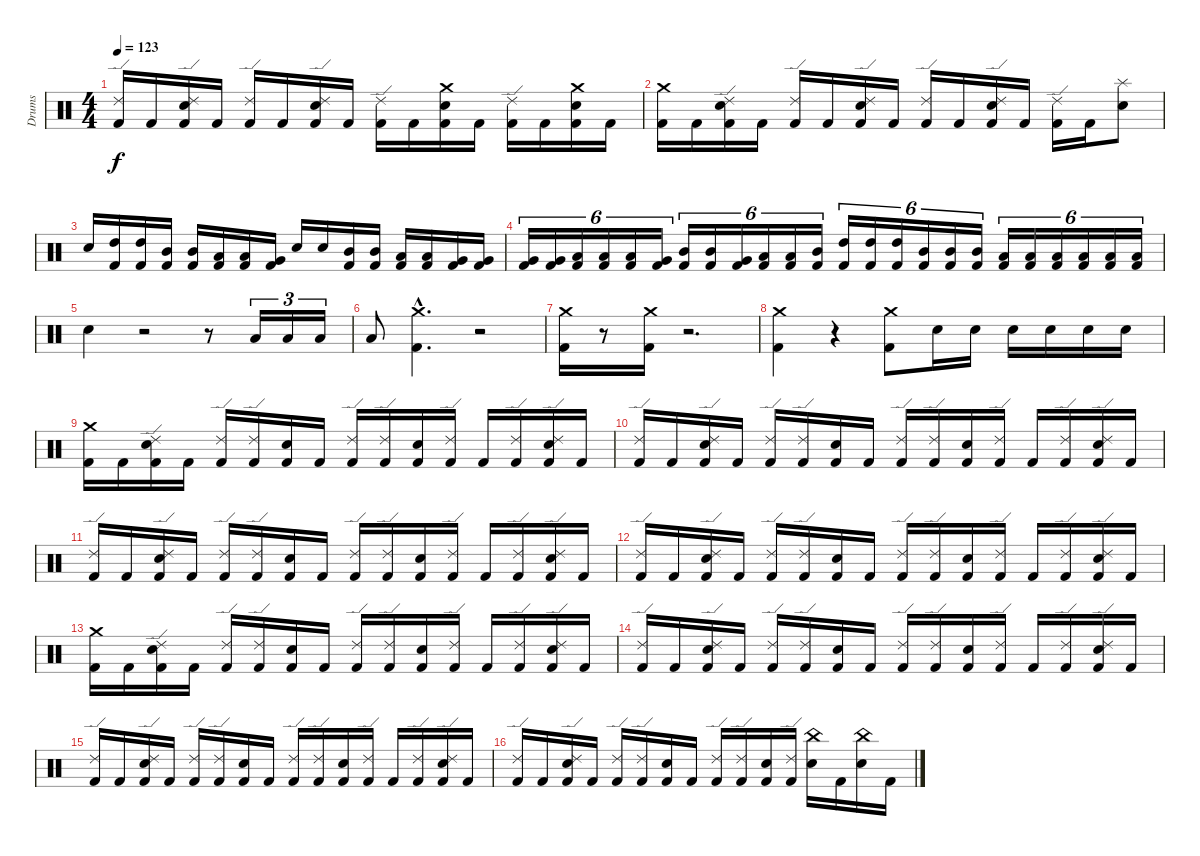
\track ("Drums" "Drums") {instrument percussion}
\staff {score}
\articulation defaults
\ts (4 4)
\tempo 123
\clef neutral
\ks c
("Ride (edge) 2" "Kick (hit) 2").16{dy f} "Kick (hit) 2".16 ("Ride (edge) 2" "Electric Snare (hit)" "Kick (hit) 2").16 "Kick (hit) 2".16 ("Ride (edge) 2" "Kick (hit) 2").16 "Kick (hit) 2".16 ("Ride (edge) 2" "Electric Snare (hit)" "Kick (hit) 2").16 "Kick (hit) 2".16 ("Ride (edge) 2" "Kick (hit) 2").16 "Kick (hit) 2".16 ("Crash medium (hit)" "Electric Snare (hit)" "Kick (hit) 2").16 "Kick (hit) 2".16 ("Ride (edge) 2" "Kick (hit) 2").16 "Kick (hit) 2".16 ("Crash medium (hit)" "Electric Snare (hit)" "Kick (hit) 2").16 "Kick (hit) 2".16 |
("Crash medium (hit)" "Kick (hit) 2").16 "Kick (hit) 2".16 ("Ride (edge) 2" "Electric Snare (hit)" "Kick (hit) 2").16 "Kick (hit) 2".16 ("Ride (edge) 2" "Kick (hit) 2").16 "Kick (hit) 2".16 ("Ride (edge) 2" "Electric Snare (hit)" "Kick (hit) 2").16 "Kick (hit) 2".16 ("Ride (edge) 2" "Kick (hit) 2").16 "Kick (hit) 2".16 ("Ride (edge) 2" "Electric Snare (hit)" "Kick (hit) 2").16 "Kick (hit) 2".16 ("Ride (edge) 2" "Kick (hit) 2").16 "Kick (hit) 2".16 ("Splash (hit)" "Electric Snare (hit)").8 |
"Electric Snare (hit)".16 ("Kick (hit) 2" "High Tom (hit)").16 ("Kick (hit) 2" "High Tom (hit)").16 ("Kick (hit) 2" "Mid Tom (hit)").16 ("Kick (hit) 2" "Mid Tom (hit)").16 ("Kick (hit) 2" "Low Tom (hit)").16 ("Kick (hit) 2" "Low Tom (hit)").16 ("Kick (hit) 2" "Very Low Tom (hit)").16 "Electric Snare (hit)".16 "Electric Snare (hit)".16 ("Kick (hit) 2" "Mid Tom (hit)").16 ("Kick (hit) 2" "Mid Tom (hit)").16 ("Kick (hit) 2" "Low Tom (hit)").16 ("Kick (hit) 2" "Low Tom (hit)").16 ("Kick (hit) 2" "Very Low Tom (hit)").16 ("Kick (hit) 2" "Very Low Tom (hit)").16 |
("Kick (hit) 2" "Very Low Tom (hit)").16{tu (6 4)} ("Kick (hit) 2" "Very Low Tom (hit)").16{tu (6 4)} ("Kick (hit) 2" "Low Floor Tom (hit)").16{tu (6 4)} ("Kick (hit) 2" "Low Tom (hit)").16{tu (6 4)} ("Kick (hit) 2" "Low Tom (hit)").16{tu (6 4)} ("Kick (hit) 2" "Very Low Tom (hit)").16{tu (6 4)} ("Kick (hit) 2" "Mid Tom (hit)").16{tu (6 4)} ("Kick (hit) 2" "Mid Tom (hit)").16{tu (6 4)} ("Kick (hit) 2" "Very Low Tom (hit)").16{tu (6 4)} ("Kick (hit) 2" "Low Tom (hit)").16{tu (6 4)} ("Kick (hit) 2" "Low Tom (hit)").16{tu (6 4)} ("Kick (hit) 2" "Mid Tom (hit)").16{tu (6 4)} ("Kick (hit) 2" "High Tom (hit)").16{tu (6 4)} ("Kick (hit) 2" "High Tom (hit)").16{tu (6 4)} ("Kick (hit) 2" "High Tom (hit)").16{tu (6 4)} ("Kick (hit) 2" "Mid Tom (hit)").16{tu (6 4)} ("Kick (hit) 2" "Mid Tom (hit)").16{tu (6 4)} ("Kick (hit) 2" "Mid Tom (hit)").16{tu (6 4)} ("Kick (hit) 2" "Low Tom (hit)").16{tu (6 4)} ("Kick (hit) 2" "Low Tom (hit)").16{tu (6 4)} ("Kick (hit) 2" "Low Tom (hit)").16{tu (6 4)} ("Kick (hit) 2" "Low Floor Tom (hit)").16{tu (6 4)} ("Kick (hit) 2" "Low Floor Tom (hit)").16{tu (6 4)} ("Kick (hit) 2" "Low Floor Tom (hit)").16{tu (6 4)} |
"Electric Snare (hit)".4 r.2 r.8 "Low Tom (hit)".16{tu (3 2)} "Low Tom (hit)".16{tu (3 2)} "Low Tom (hit)".16{tu (3 2)} |
"Low Floor Tom (hit)".8 ("Crash medium (hit)"{hac} "Kick (hit) 2"{hac}).4{d} r.2 |
("Crash medium (hit)" "Kick (hit) 2").16 r.8 ("Crash medium (hit)" "Kick (hit) 2").16 r.2{d} |
("Crash medium (hit)" "Kick (hit) 2").4 r.4 ("Crash medium (hit)" "Kick (hit) 2").8 "Electric Snare (hit)".16 "Electric Snare (hit)".16 "Electric Snare (hit)".16 "Electric Snare (hit)".16 "Electric Snare (hit)".16 "Electric Snare (hit)".16 |
("Crash medium (hit)" "Kick (hit) 2").16 "Kick (hit) 2".16 ("Electric Snare (hit)" "Ride (edge) 2" "Kick (hit) 2").16 "Kick (hit) 2".16 ("Ride (edge) 2" "Kick (hit) 2").16 ("Ride (edge) 2" "Kick (hit) 2").16 ("Electric Snare (hit)" "Kick (hit) 2").16 "Kick (hit) 2".16 ("Ride (edge) 2" "Kick (hit) 2").16 ("Ride (edge) 2" "Kick (hit) 2").16 ("Electric Snare (hit)" "Kick (hit) 2").16 ("Ride (edge) 2" "Kick (hit) 2").16 "Kick (hit) 2".16 ("Ride (edge) 2" "Kick (hit) 2").16 ("Electric Snare (hit)" "Ride (edge) 2" "Kick (hit) 2").16 "Kick (hit) 2".16 |
("Ride (edge) 2" "Kick (hit) 2").16 "Kick (hit) 2".16 ("Electric Snare (hit)" "Ride (edge) 2" "Kick (hit) 2").16 "Kick (hit) 2".16 ("Ride (edge) 2" "Kick (hit) 2").16 ("Ride (edge) 2" "Kick (hit) 2").16 ("Electric Snare (hit)" "Kick (hit) 2").16 "Kick (hit) 2".16 ("Ride (edge) 2" "Kick (hit) 2").16 ("Ride (edge) 2" "Kick (hit) 2").16 ("Electric Snare (hit)" "Kick (hit) 2").16 ("Ride (edge) 2" "Kick (hit) 2").16 "Kick (hit) 2".16 ("Ride (edge) 2" "Kick (hit) 2").16 ("Electric Snare (hit)" "Ride (edge) 2" "Kick (hit) 2").16 "Kick (hit) 2".16 |
("Ride (edge) 2" "Kick (hit) 2").16 "Kick (hit) 2".16 ("Electric Snare (hit)" "Ride (edge) 2" "Kick (hit) 2").16 "Kick (hit) 2".16 ("Ride (edge) 2" "Kick (hit) 2").16 ("Ride (edge) 2" "Kick (hit) 2").16 ("Electric Snare (hit)" "Kick (hit) 2").16 "Kick (hit) 2".16 ("Ride (edge) 2" "Kick (hit) 2").16 ("Ride (edge) 2" "Kick (hit) 2").16 ("Electric Snare (hit)" "Kick (hit) 2").16 ("Ride (edge) 2" "Kick (hit) 2").16 "Kick (hit) 2".16 ("Ride (edge) 2" "Kick (hit) 2").16 ("Electric Snare (hit)" "Ride (edge) 2" "Kick (hit) 2").16 "Kick (hit) 2".16 |
("Ride (edge) 2" "Kick (hit) 2").16 "Kick (hit) 2".16 ("Electric Snare (hit)" "Ride (edge) 2" "Kick (hit) 2").16 "Kick (hit) 2".16 ("Ride (edge) 2" "Kick (hit) 2").16 ("Ride (edge) 2" "Kick (hit) 2").16 ("Electric Snare (hit)" "Kick (hit) 2").16 "Kick (hit) 2".16 ("Ride (edge) 2" "Kick (hit) 2").16 ("Ride (edge) 2" "Kick (hit) 2").16 ("Electric Snare (hit)" "Kick (hit) 2").16 ("Ride (edge) 2" "Kick (hit) 2").16 "Kick (hit) 2".16 ("Ride (edge) 2" "Kick (hit) 2").16 ("Electric Snare (hit)" "Ride (edge) 2" "Kick (hit) 2").16 "Kick (hit) 2".16 |
("Crash medium (hit)" "Kick (hit) 2").16 "Kick (hit) 2".16 ("Electric Snare (hit)" "Ride (edge) 2" "Kick (hit) 2").16 "Kick (hit) 2".16 ("Ride (edge) 2" "Kick (hit) 2").16 ("Ride (edge) 2" "Kick (hit) 2").16 ("Electric Snare (hit)" "Kick (hit) 2").16 "Kick (hit) 2".16 ("Ride (edge) 2" "Kick (hit) 2").16 ("Ride (edge) 2" "Kick (hit) 2").16 ("Electric Snare (hit)" "Kick (hit) 2").16 ("Ride (edge) 2" "Kick (hit) 2").16 "Kick (hit) 2".16 ("Ride (edge) 2" "Kick (hit) 2").16 ("Electric Snare (hit)" "Ride (edge) 2" "Kick (hit) 2").16 "Kick (hit) 2".16 |
("Ride (edge) 2" "Kick (hit) 2").16 "Kick (hit) 2".16 ("Electric Snare (hit)" "Ride (edge) 2" "Kick (hit) 2").16 "Kick (hit) 2".16 ("Ride (edge) 2" "Kick (hit) 2").16 ("Ride (edge) 2" "Kick (hit) 2").16 ("Electric Snare (hit)" "Kick (hit) 2").16 "Kick (hit) 2".16 ("Ride (edge) 2" "Kick (hit) 2").16 ("Ride (edge) 2" "Kick (hit) 2").16 ("Electric Snare (hit)" "Kick (hit) 2").16 ("Ride (edge) 2" "Kick (hit) 2").16 "Kick (hit) 2".16 ("Ride (edge) 2" "Kick (hit) 2").16 ("Electric Snare (hit)" "Ride (edge) 2" "Kick (hit) 2").16 "Kick (hit) 2".16 |
("Ride (edge) 2" "Kick (hit) 2").16 "Kick (hit) 2".16 ("Electric Snare (hit)" "Ride (edge) 2" "Kick (hit) 2").16 "Kick (hit) 2".16 ("Ride (edge) 2" "Kick (hit) 2").16 ("Ride (edge) 2" "Kick (hit) 2").16 ("Electric Snare (hit)" "Kick (hit) 2").16 "Kick (hit) 2".16 ("Ride (edge) 2" "Kick (hit) 2").16 ("Ride (edge) 2" "Kick (hit) 2").16 ("Electric Snare (hit)" "Kick (hit) 2").16 ("Ride (edge) 2" "Kick (hit) 2").16 "Kick (hit) 2".16 ("Ride (edge) 2" "Kick (hit) 2").16 ("Electric Snare (hit)" "Ride (edge) 2" "Kick (hit) 2").16 "Kick (hit) 2".16 |
("Ride (edge) 2" "Kick (hit) 2").16 "Kick (hit) 2".16 ("Electric Snare (hit)" "Ride (edge) 2" "Kick (hit) 2").16 "Kick (hit) 2".16 ("Ride (edge) 2" "Kick (hit) 2").16 ("Ride (edge) 2" "Kick (hit) 2").16 ("Electric Snare (hit)" "Kick (hit) 2").16 "Kick (hit) 2".16 ("Ride (edge) 2" "Kick (hit) 2").16 ("Ride (edge) 2" "Kick (hit) 2").16 ("Electric Snare (hit)" "Kick (hit) 2").16 ("Ride (edge) 2" "Kick (hit) 2").16 ("China (hit)" "Electric Snare (hit)").16 "Kick (hit) 2".16 ("China (hit)" "Electric Snare (hit)").16 "Kick (hit) 2".16
